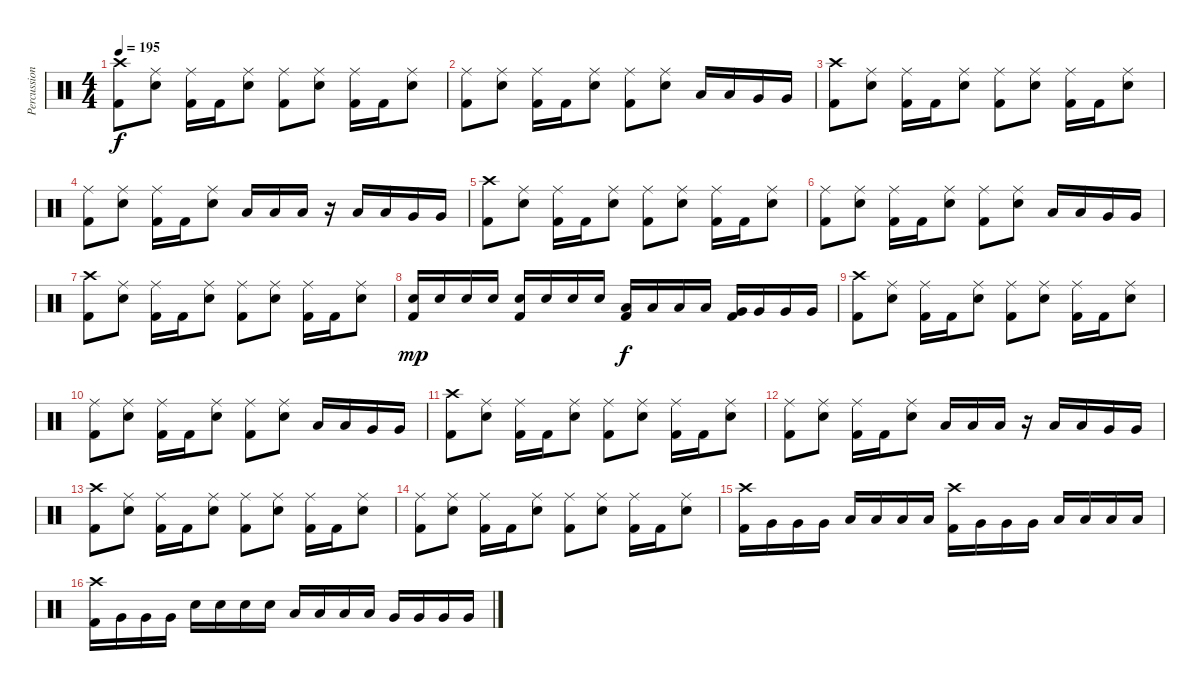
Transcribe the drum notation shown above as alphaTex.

\track ("Percussions" "Percussion") {instrument percussion}
\staff {score}
\articulation defaults
\ts (4 4)
\tempo 195
\clef neutral
\ks c
("Crash high (hit)" "Kick (hit) 2").8{dy f} ("Ride (middle)" "Snare (hit) 2").8 ("Ride (middle)" "Kick (hit) 2").16 "Kick (hit) 2".16 ("Ride (middle)" "Snare (hit) 2").8 ("Ride (middle)" "Kick (hit) 2").8 ("Ride (middle)" "Snare (hit) 2").8 ("Ride (middle)" "Kick (hit) 2").16 "Kick (hit) 2".16 ("Ride (middle)" "Snare (hit) 2").8 |
("Ride (middle)" "Kick (hit) 2").8 ("Ride (middle)" "Snare (hit) 2").8 ("Ride (middle)" "Kick (hit) 2").16 "Kick (hit) 2".16 ("Ride (middle)" "Snare (hit) 2").8 ("Ride (middle)" "Kick (hit) 2").8 ("Ride (middle)" "Snare (hit) 2").8 "Low Tom (hit)".16 "Low Tom (hit)".16 "Very Low Tom (hit)".16 "Very Low Tom (hit)".16 |
("Crash high (hit)" "Kick (hit) 2").8 ("Ride (middle)" "Snare (hit) 2").8 ("Ride (middle)" "Kick (hit) 2").16 "Kick (hit) 2".16 ("Ride (middle)" "Snare (hit) 2").8 ("Ride (middle)" "Kick (hit) 2").8 ("Ride (middle)" "Snare (hit) 2").8 ("Ride (middle)" "Kick (hit) 2").16 "Kick (hit) 2".16 ("Ride (middle)" "Snare (hit) 2").8 |
("Ride (middle)" "Kick (hit) 2").8 ("Ride (middle)" "Snare (hit) 2").8 ("Ride (middle)" "Kick (hit) 2").16 "Kick (hit) 2".16 ("Ride (middle)" "Snare (hit) 2").8 "Low Tom (hit)".16 "Low Tom (hit)".16 "Low Tom (hit)".16 r.16 "Low Tom (hit)".16 "Low Tom (hit)".16 "Very Low Tom (hit)".16 "Very Low Tom (hit)".16 |
("Crash high (hit)" "Kick (hit) 2").8 ("Ride (middle)" "Snare (hit) 2").8 ("Ride (middle)" "Kick (hit) 2").16 "Kick (hit) 2".16 ("Ride (middle)" "Snare (hit) 2").8 ("Ride (middle)" "Kick (hit) 2").8 ("Ride (middle)" "Snare (hit) 2").8 ("Ride (middle)" "Kick (hit) 2").16 "Kick (hit) 2".16 ("Ride (middle)" "Snare (hit) 2").8 |
("Ride (middle)" "Kick (hit) 2").8 ("Ride (middle)" "Snare (hit) 2").8 ("Ride (middle)" "Kick (hit) 2").16 "Kick (hit) 2".16 ("Ride (middle)" "Snare (hit) 2").8 ("Ride (middle)" "Kick (hit) 2").8 ("Ride (middle)" "Snare (hit) 2").8 "Low Tom (hit)".16 "Low Tom (hit)".16 "Very Low Tom (hit)".16 "Very Low Tom (hit)".16 |
("Crash high (hit)" "Kick (hit) 2").8 ("Ride (middle)" "Snare (hit) 2").8 ("Ride (middle)" "Kick (hit) 2").16 "Kick (hit) 2".16 ("Ride (middle)" "Snare (hit) 2").8 ("Ride (middle)" "Kick (hit) 2").8 ("Ride (middle)" "Snare (hit) 2").8 ("Ride (middle)" "Kick (hit) 2").16 "Kick (hit) 2".16 ("Ride (middle)" "Snare (hit) 2").8 |
("Snare (hit) 2" "Kick (hit) 2").16{dy mp} "Snare (hit) 2".16 "Snare (hit) 2".16 "Snare (hit) 2".16 ("Snare (hit) 2" "Kick (hit) 2").16 "Snare (hit) 2".16 "Snare (hit) 2".16 "Snare (hit) 2".16 ("Low Tom (hit)" "Kick (hit) 2").16{dy f} "Low Tom (hit)".16 "Low Tom (hit)".16 "Low Tom (hit)".16 ("Very Low Tom (hit)" "Kick (hit) 2").16 "Very Low Tom (hit)".16 "Very Low Tom (hit)".16 "Very Low Tom (hit)".16 |
("Crash high (hit)" "Kick (hit) 2").8 ("Ride (middle)" "Snare (hit) 2").8 ("Ride (middle)" "Kick (hit) 2").16 "Kick (hit) 2".16 ("Ride (middle)" "Snare (hit) 2").8 ("Ride (middle)" "Kick (hit) 2").8 ("Ride (middle)" "Snare (hit) 2").8 ("Ride (middle)" "Kick (hit) 2").16 "Kick (hit) 2".16 ("Ride (middle)" "Snare (hit) 2").8 |
("Ride (middle)" "Kick (hit) 2").8 ("Ride (middle)" "Snare (hit) 2").8 ("Ride (middle)" "Kick (hit) 2").16 "Kick (hit) 2".16 ("Ride (middle)" "Snare (hit) 2").8 ("Ride (middle)" "Kick (hit) 2").8 ("Ride (middle)" "Snare (hit) 2").8 "Low Tom (hit)".16 "Low Tom (hit)".16 "Very Low Tom (hit)".16 "Very Low Tom (hit)".16 |
("Crash high (hit)" "Kick (hit) 2").8 ("Ride (middle)" "Snare (hit) 2").8 ("Ride (middle)" "Kick (hit) 2").16 "Kick (hit) 2".16 ("Ride (middle)" "Snare (hit) 2").8 ("Ride (middle)" "Kick (hit) 2").8 ("Ride (middle)" "Snare (hit) 2").8 ("Ride (middle)" "Kick (hit) 2").16 "Kick (hit) 2".16 ("Ride (middle)" "Snare (hit) 2").8 |
("Ride (middle)" "Kick (hit) 2").8 ("Ride (middle)" "Snare (hit) 2").8 ("Ride (middle)" "Kick (hit) 2").16 "Kick (hit) 2".16 ("Ride (middle)" "Snare (hit) 2").8 "Low Tom (hit)".16 "Low Tom (hit)".16 "Low Tom (hit)".16 r.16 "Low Tom (hit)".16 "Low Tom (hit)".16 "Very Low Tom (hit)".16 "Very Low Tom (hit)".16 |
("Crash high (hit)" "Kick (hit) 2").8 ("Ride (middle)" "Snare (hit) 2").8 ("Ride (middle)" "Kick (hit) 2").16 "Kick (hit) 2".16 ("Ride (middle)" "Snare (hit) 2").8 ("Ride (middle)" "Kick (hit) 2").8 ("Ride (middle)" "Snare (hit) 2").8 ("Ride (middle)" "Kick (hit) 2").16 "Kick (hit) 2".16 ("Ride (middle)" "Snare (hit) 2").8 |
("Ride (middle)" "Kick (hit) 2").8 ("Ride (middle)" "Snare (hit) 2").8 ("Ride (middle)" "Kick (hit) 2").16 "Kick (hit) 2".16 ("Ride (middle)" "Snare (hit) 2").8 ("Ride (middle)" "Kick (hit) 2").8 ("Ride (middle)" "Snare (hit) 2").8 ("Ride (middle)" "Kick (hit) 2").16 "Kick (hit) 2".16 ("Ride (middle)" "Snare (hit) 2").8 |
("Crash high (hit)" "Kick (hit) 2").16 "Very Low Tom (hit)".16 "Very Low Tom (hit)".16 "Very Low Tom (hit)".16 "Low Tom (hit)".16 "Low Tom (hit)".16 "Low Tom (hit)".16 "Low Tom (hit)".16 ("Crash high (hit)" "Kick (hit) 2").16 "Very Low Tom (hit)".16 "Very Low Tom (hit)".16 "Very Low Tom (hit)".16 "Low Tom (hit)".16 "Low Tom (hit)".16 "Low Tom (hit)".16 "Low Tom (hit)".16 |
("Crash high (hit)" "Kick (hit) 2").16 "Very Low Tom (hit)".16 "Very Low Tom (hit)".16 "Very Low Tom (hit)".16 "Snare (hit) 2".16 "Snare (hit) 2".16 "Snare (hit) 2".16 "Snare (hit) 2".16 "Low Tom (hit)".16 "Low Tom (hit)".16 "Low Tom (hit)".16 "Low Tom (hit)".16 "Very Low Tom (hit)".16 "Very Low Tom (hit)".16 "Very Low Tom (hit)".16 "Very Low Tom (hit)".16
